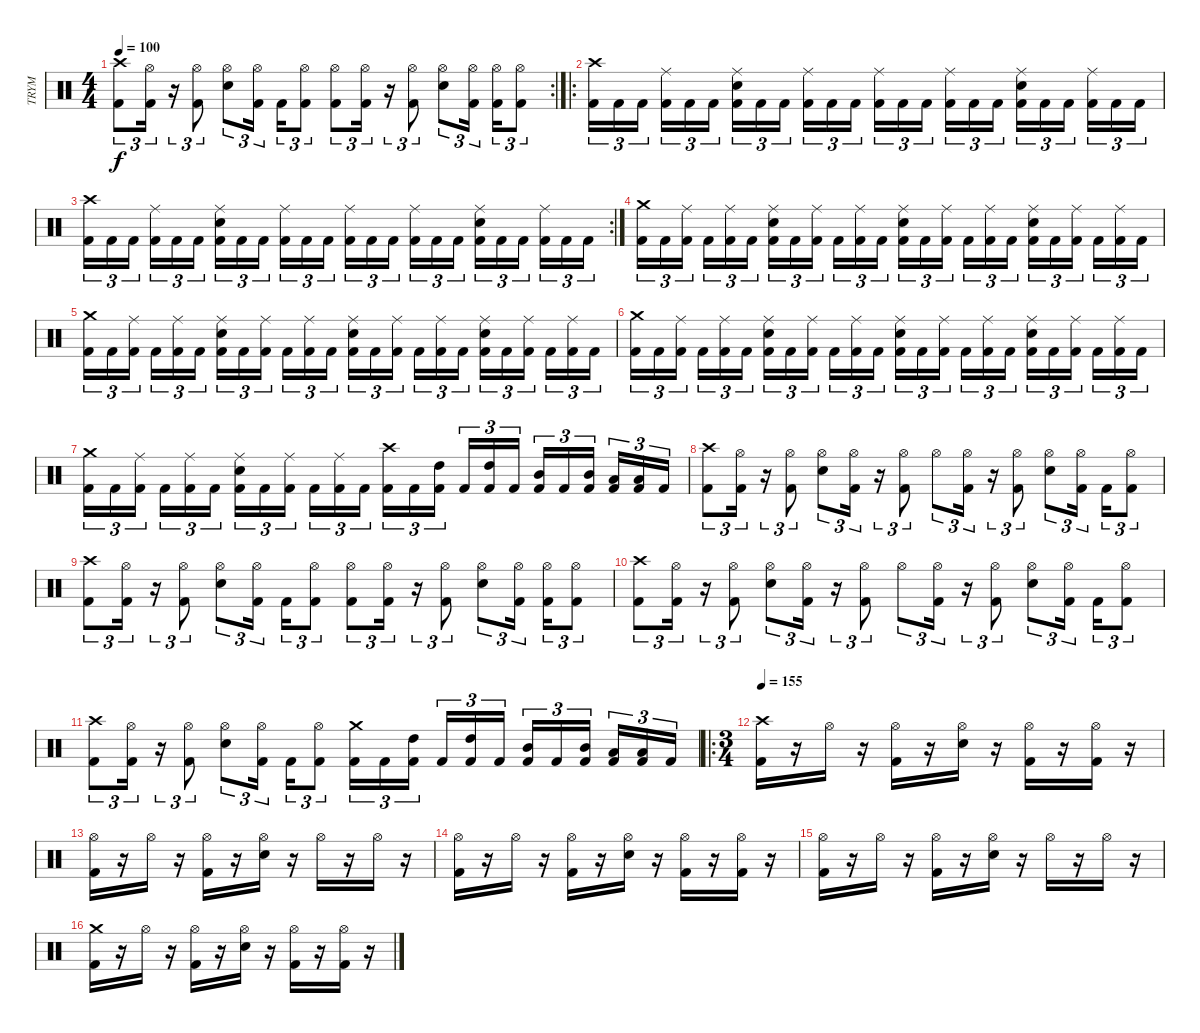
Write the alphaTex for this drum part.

\track ("TRYM" "TRYM") {instrument percussion}
\staff {score}
\articulation defaults
\rc 2
\ts (4 4)
\tempo 100
\clef neutral
\ks c
("Kick (hit) 2" "Crash high (hit)").8{tu (3 2) dy f} ("Kick (hit) 2" "Hi-Hat (open)").16{tu (3 2)} r.16{tu (3 2)} ("Kick (hit) 2" "Hi-Hat (open)").8{tu (3 2)} ("Hi-Hat (open)" "Electric Snare (hit)").8{tu (3 2)} ("Kick (hit) 2" "Hi-Hat (open)").16{tu (3 2) beam splitsecondary} "Kick (hit) 2".16{tu (3 2)} ("Kick (hit) 2" "Hi-Hat (open)").8{tu (3 2)} ("Kick (hit) 2" "Hi-Hat (open)").8{tu (3 2)} ("Kick (hit) 2" "Hi-Hat (open)").16{tu (3 2)} r.16{tu (3 2)} ("Kick (hit) 2" "Hi-Hat (open)").8{tu (3 2)} ("Hi-Hat (open)" "Electric Snare (hit)").8{tu (3 2)} ("Kick (hit) 2" "Hi-Hat (open)").16{tu (3 2) beam splitsecondary} ("Kick (hit) 2" "Hi-Hat (open)").16{tu (3 2)} ("Kick (hit) 2" "Hi-Hat (open)").8{tu (3 2)} |
\ro
("Kick (hit) 2" "Crash high (hit)").16{tu (3 2)} "Kick (hit) 2".16{tu (3 2)} "Kick (hit) 2".16{tu (3 2) beam splitsecondary} ("Kick (hit) 2" "Ride (middle)").16{tu (3 2)} "Kick (hit) 2".16{tu (3 2)} "Kick (hit) 2".16{tu (3 2)} ("Kick (hit) 2" "Ride (middle)" "Electric Snare (hit)").16{tu (3 2)} "Kick (hit) 2".16{tu (3 2)} "Kick (hit) 2".16{tu (3 2) beam splitsecondary} ("Kick (hit) 2" "Ride (middle)").16{tu (3 2)} "Kick (hit) 2".16{tu (3 2)} "Kick (hit) 2".16{tu (3 2)} ("Kick (hit) 2" "Ride (middle)").16{tu (3 2)} "Kick (hit) 2".16{tu (3 2)} "Kick (hit) 2".16{tu (3 2) beam splitsecondary} ("Kick (hit) 2" "Ride (middle)").16{tu (3 2)} "Kick (hit) 2".16{tu (3 2)} "Kick (hit) 2".16{tu (3 2)} ("Kick (hit) 2" "Ride (middle)" "Electric Snare (hit)").16{tu (3 2)} "Kick (hit) 2".16{tu (3 2)} "Kick (hit) 2".16{tu (3 2) beam splitsecondary} ("Kick (hit) 2" "Ride (middle)").16{tu (3 2)} "Kick (hit) 2".16{tu (3 2)} "Kick (hit) 2".16{tu (3 2)} |
\rc 2
("Kick (hit) 2" "Crash high (hit)").16{tu (3 2)} "Kick (hit) 2".16{tu (3 2)} "Kick (hit) 2".16{tu (3 2) beam splitsecondary} ("Kick (hit) 2" "Ride (middle)").16{tu (3 2)} "Kick (hit) 2".16{tu (3 2)} "Kick (hit) 2".16{tu (3 2)} ("Kick (hit) 2" "Ride (middle)" "Electric Snare (hit)").16{tu (3 2)} "Kick (hit) 2".16{tu (3 2)} "Kick (hit) 2".16{tu (3 2) beam splitsecondary} ("Kick (hit) 2" "Ride (middle)").16{tu (3 2)} "Kick (hit) 2".16{tu (3 2)} "Kick (hit) 2".16{tu (3 2)} ("Kick (hit) 2" "Ride (middle)").16{tu (3 2)} "Kick (hit) 2".16{tu (3 2)} "Kick (hit) 2".16{tu (3 2) beam splitsecondary} ("Kick (hit) 2" "Ride (middle)").16{tu (3 2)} "Kick (hit) 2".16{tu (3 2)} "Kick (hit) 2".16{tu (3 2)} ("Kick (hit) 2" "Ride (middle)" "Electric Snare (hit)").16{tu (3 2)} "Kick (hit) 2".16{tu (3 2)} "Kick (hit) 2".16{tu (3 2) beam splitsecondary} ("Kick (hit) 2" "Ride (middle)").16{tu (3 2)} "Kick (hit) 2".16{tu (3 2)} "Kick (hit) 2".16{tu (3 2)} |
("Kick (hit) 2" "Crash medium (hit)").16{tu (3 2)} "Kick (hit) 2".16{tu (3 2)} ("Kick (hit) 2" "Ride (middle)").16{tu (3 2) beam splitsecondary} "Kick (hit) 2".16{tu (3 2)} ("Kick (hit) 2" "Ride (middle)").16{tu (3 2)} "Kick (hit) 2".16{tu (3 2)} ("Kick (hit) 2" "Ride (middle)" "Electric Snare (hit)").16{tu (3 2)} "Kick (hit) 2".16{tu (3 2)} ("Kick (hit) 2" "Ride (middle)").16{tu (3 2) beam splitsecondary} "Kick (hit) 2".16{tu (3 2)} ("Kick (hit) 2" "Ride (middle)").16{tu (3 2)} "Kick (hit) 2".16{tu (3 2)} ("Kick (hit) 2" "Ride (middle)" "Electric Snare (hit)").16{tu (3 2)} "Kick (hit) 2".16{tu (3 2)} ("Kick (hit) 2" "Ride (middle)").16{tu (3 2) beam splitsecondary} "Kick (hit) 2".16{tu (3 2)} ("Kick (hit) 2" "Ride (middle)").16{tu (3 2)} "Kick (hit) 2".16{tu (3 2)} ("Kick (hit) 2" "Ride (middle)" "Electric Snare (hit)").16{tu (3 2)} "Kick (hit) 2".16{tu (3 2)} ("Kick (hit) 2" "Ride (middle)").16{tu (3 2) beam splitsecondary} "Kick (hit) 2".16{tu (3 2)} ("Kick (hit) 2" "Ride (middle)").16{tu (3 2)} "Kick (hit) 2".16{tu (3 2)} |
("Kick (hit) 2" "Crash medium (hit)").16{tu (3 2)} "Kick (hit) 2".16{tu (3 2)} ("Kick (hit) 2" "Ride (middle)").16{tu (3 2) beam splitsecondary} "Kick (hit) 2".16{tu (3 2)} ("Kick (hit) 2" "Ride (middle)").16{tu (3 2)} "Kick (hit) 2".16{tu (3 2)} ("Kick (hit) 2" "Ride (middle)" "Electric Snare (hit)").16{tu (3 2)} "Kick (hit) 2".16{tu (3 2)} ("Kick (hit) 2" "Ride (middle)").16{tu (3 2) beam splitsecondary} "Kick (hit) 2".16{tu (3 2)} ("Kick (hit) 2" "Ride (middle)").16{tu (3 2)} "Kick (hit) 2".16{tu (3 2)} ("Kick (hit) 2" "Ride (middle)" "Electric Snare (hit)").16{tu (3 2)} "Kick (hit) 2".16{tu (3 2)} ("Kick (hit) 2" "Ride (middle)").16{tu (3 2) beam splitsecondary} "Kick (hit) 2".16{tu (3 2)} ("Kick (hit) 2" "Ride (middle)").16{tu (3 2)} "Kick (hit) 2".16{tu (3 2)} ("Kick (hit) 2" "Ride (middle)" "Electric Snare (hit)").16{tu (3 2)} "Kick (hit) 2".16{tu (3 2)} ("Kick (hit) 2" "Ride (middle)").16{tu (3 2) beam splitsecondary} "Kick (hit) 2".16{tu (3 2)} ("Kick (hit) 2" "Ride (middle)").16{tu (3 2)} "Kick (hit) 2".16{tu (3 2)} |
("Kick (hit) 2" "Crash medium (hit)").16{tu (3 2)} "Kick (hit) 2".16{tu (3 2)} ("Kick (hit) 2" "Ride (middle)").16{tu (3 2) beam splitsecondary} "Kick (hit) 2".16{tu (3 2)} ("Kick (hit) 2" "Ride (middle)").16{tu (3 2)} "Kick (hit) 2".16{tu (3 2)} ("Kick (hit) 2" "Ride (middle)" "Electric Snare (hit)").16{tu (3 2)} "Kick (hit) 2".16{tu (3 2)} ("Kick (hit) 2" "Ride (middle)").16{tu (3 2) beam splitsecondary} "Kick (hit) 2".16{tu (3 2)} ("Kick (hit) 2" "Ride (middle)").16{tu (3 2)} "Kick (hit) 2".16{tu (3 2)} ("Kick (hit) 2" "Ride (middle)" "Electric Snare (hit)").16{tu (3 2)} "Kick (hit) 2".16{tu (3 2)} ("Kick (hit) 2" "Ride (middle)").16{tu (3 2) beam splitsecondary} "Kick (hit) 2".16{tu (3 2)} ("Kick (hit) 2" "Ride (middle)").16{tu (3 2)} "Kick (hit) 2".16{tu (3 2)} ("Kick (hit) 2" "Ride (middle)" "Electric Snare (hit)").16{tu (3 2)} "Kick (hit) 2".16{tu (3 2)} ("Kick (hit) 2" "Ride (middle)").16{tu (3 2) beam splitsecondary} "Kick (hit) 2".16{tu (3 2)} ("Kick (hit) 2" "Ride (middle)").16{tu (3 2)} "Kick (hit) 2".16{tu (3 2)} |
("Kick (hit) 2" "Crash medium (hit)").16{tu (3 2)} "Kick (hit) 2".16{tu (3 2)} ("Kick (hit) 2" "Ride (middle)").16{tu (3 2) beam splitsecondary} "Kick (hit) 2".16{tu (3 2)} ("Kick (hit) 2" "Ride (middle)").16{tu (3 2)} "Kick (hit) 2".16{tu (3 2)} ("Kick (hit) 2" "Ride (middle)" "Electric Snare (hit)").16{tu (3 2)} "Kick (hit) 2".16{tu (3 2)} ("Kick (hit) 2" "Ride (middle)").16{tu (3 2) beam splitsecondary} "Kick (hit) 2".16{tu (3 2)} ("Kick (hit) 2" "Ride (middle)").16{tu (3 2)} "Kick (hit) 2".16{tu (3 2)} ("Kick (hit) 2" "Crash high (hit)").16{tu (3 2)} "Kick (hit) 2".16{tu (3 2)} ("Kick (hit) 2" "High Tom (hit)").16{tu (3 2) beam splitsecondary} "Kick (hit) 2".16{tu (3 2)} ("Kick (hit) 2" "High Tom (hit)").16{tu (3 2)} "Kick (hit) 2".16{tu (3 2)} ("Kick (hit) 2" "Mid Tom (hit)").16{tu (3 2)} "Kick (hit) 2".16{tu (3 2)} ("Kick (hit) 2" "Mid Tom (hit)").16{tu (3 2) beam splitsecondary} ("Kick (hit) 2" "Low Tom (hit)").16{tu (3 2)} ("Kick (hit) 2" "Low Tom (hit)").16{tu (3 2)} "Kick (hit) 2".16{tu (3 2)} |
("Kick (hit) 2" "Crash high (hit)").8{tu (3 2)} ("Kick (hit) 2" "Hi-Hat (open)").16{tu (3 2)} r.16{tu (3 2)} ("Kick (hit) 2" "Hi-Hat (open)").8{tu (3 2)} ("Hi-Hat (open)" "Electric Snare (hit)").8{tu (3 2)} ("Kick (hit) 2" "Hi-Hat (open)").16{tu (3 2)} r.16{tu (3 2)} ("Kick (hit) 2" "Hi-Hat (open)").8{tu (3 2)} "Hi-Hat (open)".8{tu (3 2)} ("Kick (hit) 2" "Hi-Hat (open)").16{tu (3 2)} r.16{tu (3 2)} ("Kick (hit) 2" "Hi-Hat (open)").8{tu (3 2)} ("Hi-Hat (open)" "Electric Snare (hit)").8{tu (3 2)} ("Kick (hit) 2" "Hi-Hat (open)").16{tu (3 2) beam splitsecondary} "Kick (hit) 2".16{tu (3 2)} ("Kick (hit) 2" "Hi-Hat (open)").8{tu (3 2)} |
("Kick (hit) 2" "Crash high (hit)").8{tu (3 2)} ("Kick (hit) 2" "Hi-Hat (open)").16{tu (3 2)} r.16{tu (3 2)} ("Kick (hit) 2" "Hi-Hat (open)").8{tu (3 2)} ("Hi-Hat (open)" "Electric Snare (hit)").8{tu (3 2)} ("Kick (hit) 2" "Hi-Hat (open)").16{tu (3 2) beam splitsecondary} "Kick (hit) 2".16{tu (3 2)} ("Kick (hit) 2" "Hi-Hat (open)").8{tu (3 2)} ("Kick (hit) 2" "Hi-Hat (open)").8{tu (3 2)} ("Kick (hit) 2" "Hi-Hat (open)").16{tu (3 2)} r.16{tu (3 2)} ("Kick (hit) 2" "Hi-Hat (open)").8{tu (3 2)} ("Hi-Hat (open)" "Electric Snare (hit)").8{tu (3 2)} ("Kick (hit) 2" "Hi-Hat (open)").16{tu (3 2) beam splitsecondary} ("Kick (hit) 2" "Hi-Hat (open)").16{tu (3 2)} ("Kick (hit) 2" "Hi-Hat (open)").8{tu (3 2)} |
("Kick (hit) 2" "Crash high (hit)").8{tu (3 2)} ("Kick (hit) 2" "Hi-Hat (open)").16{tu (3 2)} r.16{tu (3 2)} ("Kick (hit) 2" "Hi-Hat (open)").8{tu (3 2)} ("Hi-Hat (open)" "Electric Snare (hit)").8{tu (3 2)} ("Kick (hit) 2" "Hi-Hat (open)").16{tu (3 2)} r.16{tu (3 2)} ("Kick (hit) 2" "Hi-Hat (open)").8{tu (3 2)} "Hi-Hat (open)".8{tu (3 2)} ("Kick (hit) 2" "Hi-Hat (open)").16{tu (3 2)} r.16{tu (3 2)} ("Kick (hit) 2" "Hi-Hat (open)").8{tu (3 2)} ("Hi-Hat (open)" "Electric Snare (hit)").8{tu (3 2)} ("Kick (hit) 2" "Hi-Hat (open)").16{tu (3 2) beam splitsecondary} "Kick (hit) 2".16{tu (3 2)} ("Kick (hit) 2" "Hi-Hat (open)").8{tu (3 2)} |
("Kick (hit) 2" "Crash high (hit)").8{tu (3 2)} ("Kick (hit) 2" "Hi-Hat (open)").16{tu (3 2)} r.16{tu (3 2)} ("Kick (hit) 2" "Hi-Hat (open)").8{tu (3 2)} ("Hi-Hat (open)" "Electric Snare (hit)").8{tu (3 2)} ("Kick (hit) 2" "Hi-Hat (open)").16{tu (3 2) beam splitsecondary} "Kick (hit) 2".16{tu (3 2)} ("Kick (hit) 2" "Hi-Hat (open)").8{tu (3 2)} ("Kick (hit) 2" "Crash medium (hit)").16{tu (3 2)} "Kick (hit) 2".16{tu (3 2)} ("Kick (hit) 2" "High Tom (hit)").16{tu (3 2) beam splitsecondary} "Kick (hit) 2".16{tu (3 2)} ("Kick (hit) 2" "High Tom (hit)").16{tu (3 2)} "Kick (hit) 2".16{tu (3 2)} ("Kick (hit) 2" "Mid Tom (hit)").16{tu (3 2)} "Kick (hit) 2".16{tu (3 2)} ("Kick (hit) 2" "Mid Tom (hit)").16{tu (3 2) beam splitsecondary} ("Kick (hit) 2" "Low Tom (hit)").16{tu (3 2)} ("Kick (hit) 2" "Low Tom (hit)").16{tu (3 2)} "Kick (hit) 2".16{tu (3 2)} |
\ro
\ts (3 4)
\tempo 150
\tempo 155
("Kick (hit) 2" "Crash high (hit)").16 r.16 "Hi-Hat (open)".16 r.16 ("Kick (hit) 2" "Hi-Hat (open)").16 r.16 ("Hi-Hat (open)" "Electric Snare (hit)").16 r.16 ("Kick (hit) 2" "Hi-Hat (open)").16 r.16 ("Kick (hit) 2" "Hi-Hat (open)").16 r.16 |
("Kick (hit) 2" "Hi-Hat (open)").16 r.16 "Hi-Hat (open)".16 r.16 ("Kick (hit) 2" "Hi-Hat (open)").16 r.16 ("Hi-Hat (open)" "Electric Snare (hit)").16 r.16 "Hi-Hat (open)".16 r.16 "Hi-Hat (open)".16 r.16 |
("Kick (hit) 2" "Hi-Hat (open)").16 r.16 "Hi-Hat (open)".16 r.16 ("Kick (hit) 2" "Hi-Hat (open)").16 r.16 ("Hi-Hat (open)" "Electric Snare (hit)").16 r.16 ("Kick (hit) 2" "Hi-Hat (open)").16 r.16 ("Kick (hit) 2" "Hi-Hat (open)").16 r.16 |
("Kick (hit) 2" "Hi-Hat (open)").16 r.16 "Hi-Hat (open)".16 r.16 ("Kick (hit) 2" "Hi-Hat (open)").16 r.16 ("Hi-Hat (open)" "Electric Snare (hit)").16 r.16 "Hi-Hat (open)".16 r.16 "Hi-Hat (open)".16 r.16 |
("Kick (hit) 2" "Crash medium (hit)").16 r.16 "Hi-Hat (open)".16 r.16 ("Kick (hit) 2" "Hi-Hat (open)").16 r.16 ("Hi-Hat (open)" "Electric Snare (hit)").16 r.16 ("Kick (hit) 2" "Hi-Hat (open)").16 r.16 ("Kick (hit) 2" "Hi-Hat (open)").16 r.16
